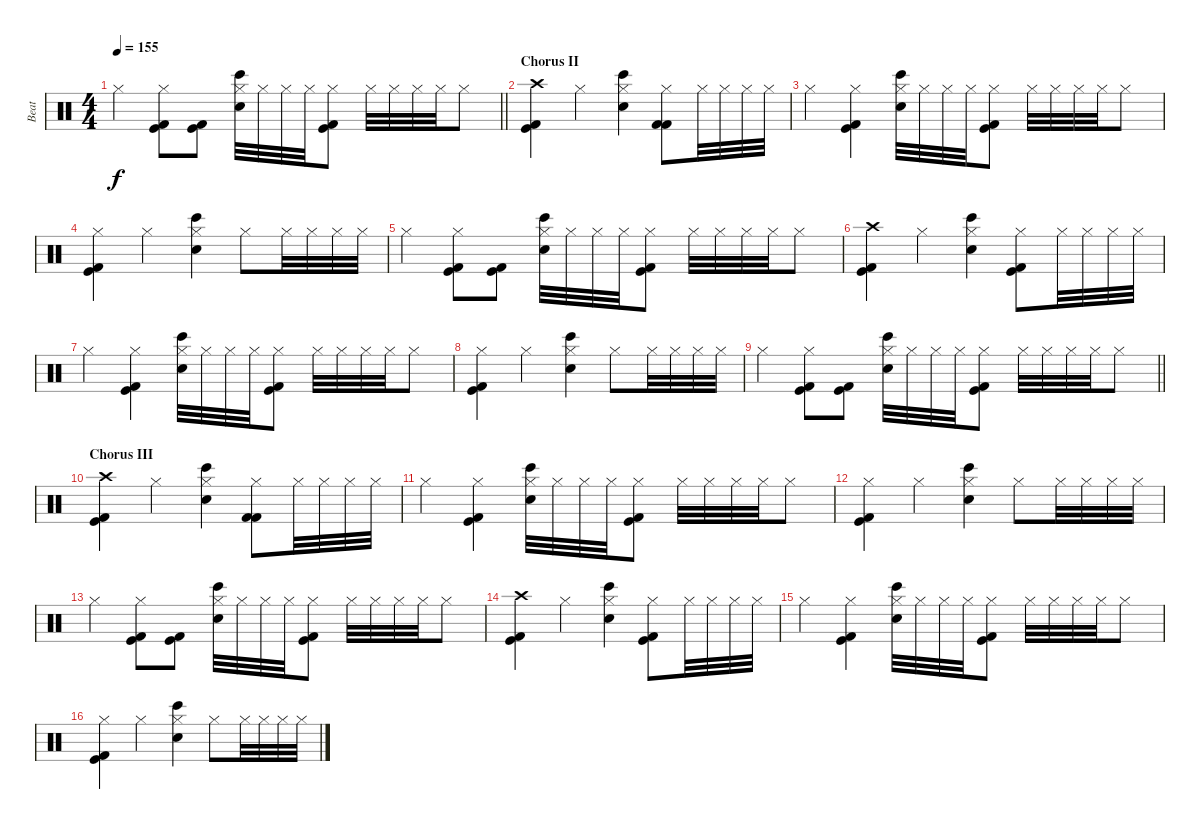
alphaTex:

\track ("Beat" "Beat") {instrument percussion}
\staff {score}
\articulation defaults
\ts (4 4)
\tempo 155
\clef neutral
\barLineRight lightlight
\ks c "Hi-Hat (closed)".4{dy f}
("Hi-Hat (closed)" "Kick (hit)" "Kick (hit) 2").8 ("Kick (hit)" "Kick (hit) 2").8 ("Hi-Hat (closed)" "Hand Clap (hit)" "Bongo High (hit)").32 "Hi-Hat (closed)".32 "Hi-Hat (closed)".32 "Hi-Hat (closed)".32 ("Hi-Hat (closed)" "Kick (hit)" "Kick (hit) 2").8 "Hi-Hat (closed)".32 "Hi-Hat (closed)".32 "Hi-Hat (closed)".32 "Hi-Hat (closed)".32 "Hi-Hat (closed)".8 |
\section ("" "Chorus II")
("Crash high (hit)" "Kick (hit)" "Kick (hit) 2").4 "Hi-Hat (closed)".4 ("Hi-Hat (closed)" "Hand Clap (hit)" "Bongo High (hit)").4 ("Hi-Hat (closed)" "Kick (hit) 2" "Kick (hit) 2").8 "Hi-Hat (closed)".32 "Hi-Hat (closed)".32 "Hi-Hat (closed)".32 "Hi-Hat (closed)".32 |
"Hi-Hat (closed)".4 ("Hi-Hat (closed)" "Kick (hit)" "Kick (hit) 2").4 ("Hi-Hat (closed)" "Hand Clap (hit)" "Bongo High (hit)").32 "Hi-Hat (closed)".32 "Hi-Hat (closed)".32 "Hi-Hat (closed)".32 ("Hi-Hat (closed)" "Kick (hit)" "Kick (hit) 2").8 "Hi-Hat (closed)".32 "Hi-Hat (closed)".32 "Hi-Hat (closed)".32 "Hi-Hat (closed)".32 "Hi-Hat (closed)".8 |
("Hi-Hat (closed)" "Kick (hit)" "Kick (hit) 2").4 "Hi-Hat (closed)".4 ("Hi-Hat (closed)" "Hand Clap (hit)" "Bongo High (hit)").4 "Hi-Hat (closed)".8 "Hi-Hat (closed)".32 "Hi-Hat (closed)".32 "Hi-Hat (closed)".32 "Hi-Hat (closed)".32 |
"Hi-Hat (closed)".4 ("Hi-Hat (closed)" "Kick (hit)" "Kick (hit) 2").8 ("Kick (hit)" "Kick (hit) 2").8 ("Hi-Hat (closed)" "Hand Clap (hit)" "Bongo High (hit)").32 "Hi-Hat (closed)".32 "Hi-Hat (closed)".32 "Hi-Hat (closed)".32 ("Hi-Hat (closed)" "Kick (hit)" "Kick (hit) 2").8 "Hi-Hat (closed)".32 "Hi-Hat (closed)".32 "Hi-Hat (closed)".32 "Hi-Hat (closed)".32 "Hi-Hat (closed)".8 |
("Crash high (hit)" "Kick (hit)" "Kick (hit) 2").4 "Hi-Hat (closed)".4 ("Hi-Hat (closed)" "Hand Clap (hit)" "Bongo High (hit)").4 ("Hi-Hat (closed)" "Kick (hit)" "Kick (hit) 2").8 "Hi-Hat (closed)".32 "Hi-Hat (closed)".32 "Hi-Hat (closed)".32 "Hi-Hat (closed)".32 |
"Hi-Hat (closed)".4 ("Hi-Hat (closed)" "Kick (hit)" "Kick (hit) 2").4 ("Hi-Hat (closed)" "Hand Clap (hit)" "Bongo High (hit)").32 "Hi-Hat (closed)".32 "Hi-Hat (closed)".32 "Hi-Hat (closed)".32 ("Hi-Hat (closed)" "Kick (hit)" "Kick (hit) 2").8 "Hi-Hat (closed)".32 "Hi-Hat (closed)".32 "Hi-Hat (closed)".32 "Hi-Hat (closed)".32 "Hi-Hat (closed)".8 |
("Hi-Hat (closed)" "Kick (hit)" "Kick (hit) 2").4 "Hi-Hat (closed)".4 ("Hi-Hat (closed)" "Hand Clap (hit)" "Bongo High (hit)").4 "Hi-Hat (closed)".8 "Hi-Hat (closed)".32 "Hi-Hat (closed)".32 "Hi-Hat (closed)".32 "Hi-Hat (closed)".32 |
\barLineRight lightlight "Hi-Hat (closed)".4
("Hi-Hat (closed)" "Kick (hit)" "Kick (hit) 2").8 ("Kick (hit)" "Kick (hit) 2").8 ("Hi-Hat (closed)" "Hand Clap (hit)" "Bongo High (hit)").32 "Hi-Hat (closed)".32 "Hi-Hat (closed)".32 "Hi-Hat (closed)".32 ("Hi-Hat (closed)" "Kick (hit)" "Kick (hit) 2").8 "Hi-Hat (closed)".32 "Hi-Hat (closed)".32 "Hi-Hat (closed)".32 "Hi-Hat (closed)".32 "Hi-Hat (closed)".8 |
\section ("" "Chorus III")
("Crash high (hit)" "Kick (hit)" "Kick (hit) 2").4 "Hi-Hat (closed)".4 ("Hi-Hat (closed)" "Hand Clap (hit)" "Bongo High (hit)").4 ("Hi-Hat (closed)" "Kick (hit) 2" "Kick (hit) 2").8 "Hi-Hat (closed)".32 "Hi-Hat (closed)".32 "Hi-Hat (closed)".32 "Hi-Hat (closed)".32 |
"Hi-Hat (closed)".4 ("Hi-Hat (closed)" "Kick (hit)" "Kick (hit) 2").4 ("Hi-Hat (closed)" "Hand Clap (hit)" "Bongo High (hit)").32 "Hi-Hat (closed)".32 "Hi-Hat (closed)".32 "Hi-Hat (closed)".32 ("Hi-Hat (closed)" "Kick (hit)" "Kick (hit) 2").8 "Hi-Hat (closed)".32 "Hi-Hat (closed)".32 "Hi-Hat (closed)".32 "Hi-Hat (closed)".32 "Hi-Hat (closed)".8 |
("Hi-Hat (closed)" "Kick (hit)" "Kick (hit) 2").4 "Hi-Hat (closed)".4 ("Hi-Hat (closed)" "Hand Clap (hit)" "Bongo High (hit)").4 "Hi-Hat (closed)".8 "Hi-Hat (closed)".32 "Hi-Hat (closed)".32 "Hi-Hat (closed)".32 "Hi-Hat (closed)".32 |
"Hi-Hat (closed)".4 ("Hi-Hat (closed)" "Kick (hit)" "Kick (hit) 2").8 ("Kick (hit)" "Kick (hit) 2").8 ("Hi-Hat (closed)" "Hand Clap (hit)" "Bongo High (hit)").32 "Hi-Hat (closed)".32 "Hi-Hat (closed)".32 "Hi-Hat (closed)".32 ("Hi-Hat (closed)" "Kick (hit)" "Kick (hit) 2").8 "Hi-Hat (closed)".32 "Hi-Hat (closed)".32 "Hi-Hat (closed)".32 "Hi-Hat (closed)".32 "Hi-Hat (closed)".8 |
("Crash high (hit)" "Kick (hit)" "Kick (hit) 2").4 "Hi-Hat (closed)".4 ("Hi-Hat (closed)" "Hand Clap (hit)" "Bongo High (hit)").4 ("Hi-Hat (closed)" "Kick (hit)" "Kick (hit) 2").8 "Hi-Hat (closed)".32 "Hi-Hat (closed)".32 "Hi-Hat (closed)".32 "Hi-Hat (closed)".32 |
"Hi-Hat (closed)".4 ("Hi-Hat (closed)" "Kick (hit)" "Kick (hit) 2").4 ("Hi-Hat (closed)" "Hand Clap (hit)" "Bongo High (hit)").32 "Hi-Hat (closed)".32 "Hi-Hat (closed)".32 "Hi-Hat (closed)".32 ("Hi-Hat (closed)" "Kick (hit)" "Kick (hit) 2").8 "Hi-Hat (closed)".32 "Hi-Hat (closed)".32 "Hi-Hat (closed)".32 "Hi-Hat (closed)".32 "Hi-Hat (closed)".8 |
("Hi-Hat (closed)" "Kick (hit)" "Kick (hit) 2").4 "Hi-Hat (closed)".4 ("Hi-Hat (closed)" "Hand Clap (hit)" "Bongo High (hit)").4 "Hi-Hat (closed)".8 "Hi-Hat (closed)".32 "Hi-Hat (closed)".32 "Hi-Hat (closed)".32 "Hi-Hat (closed)".32
